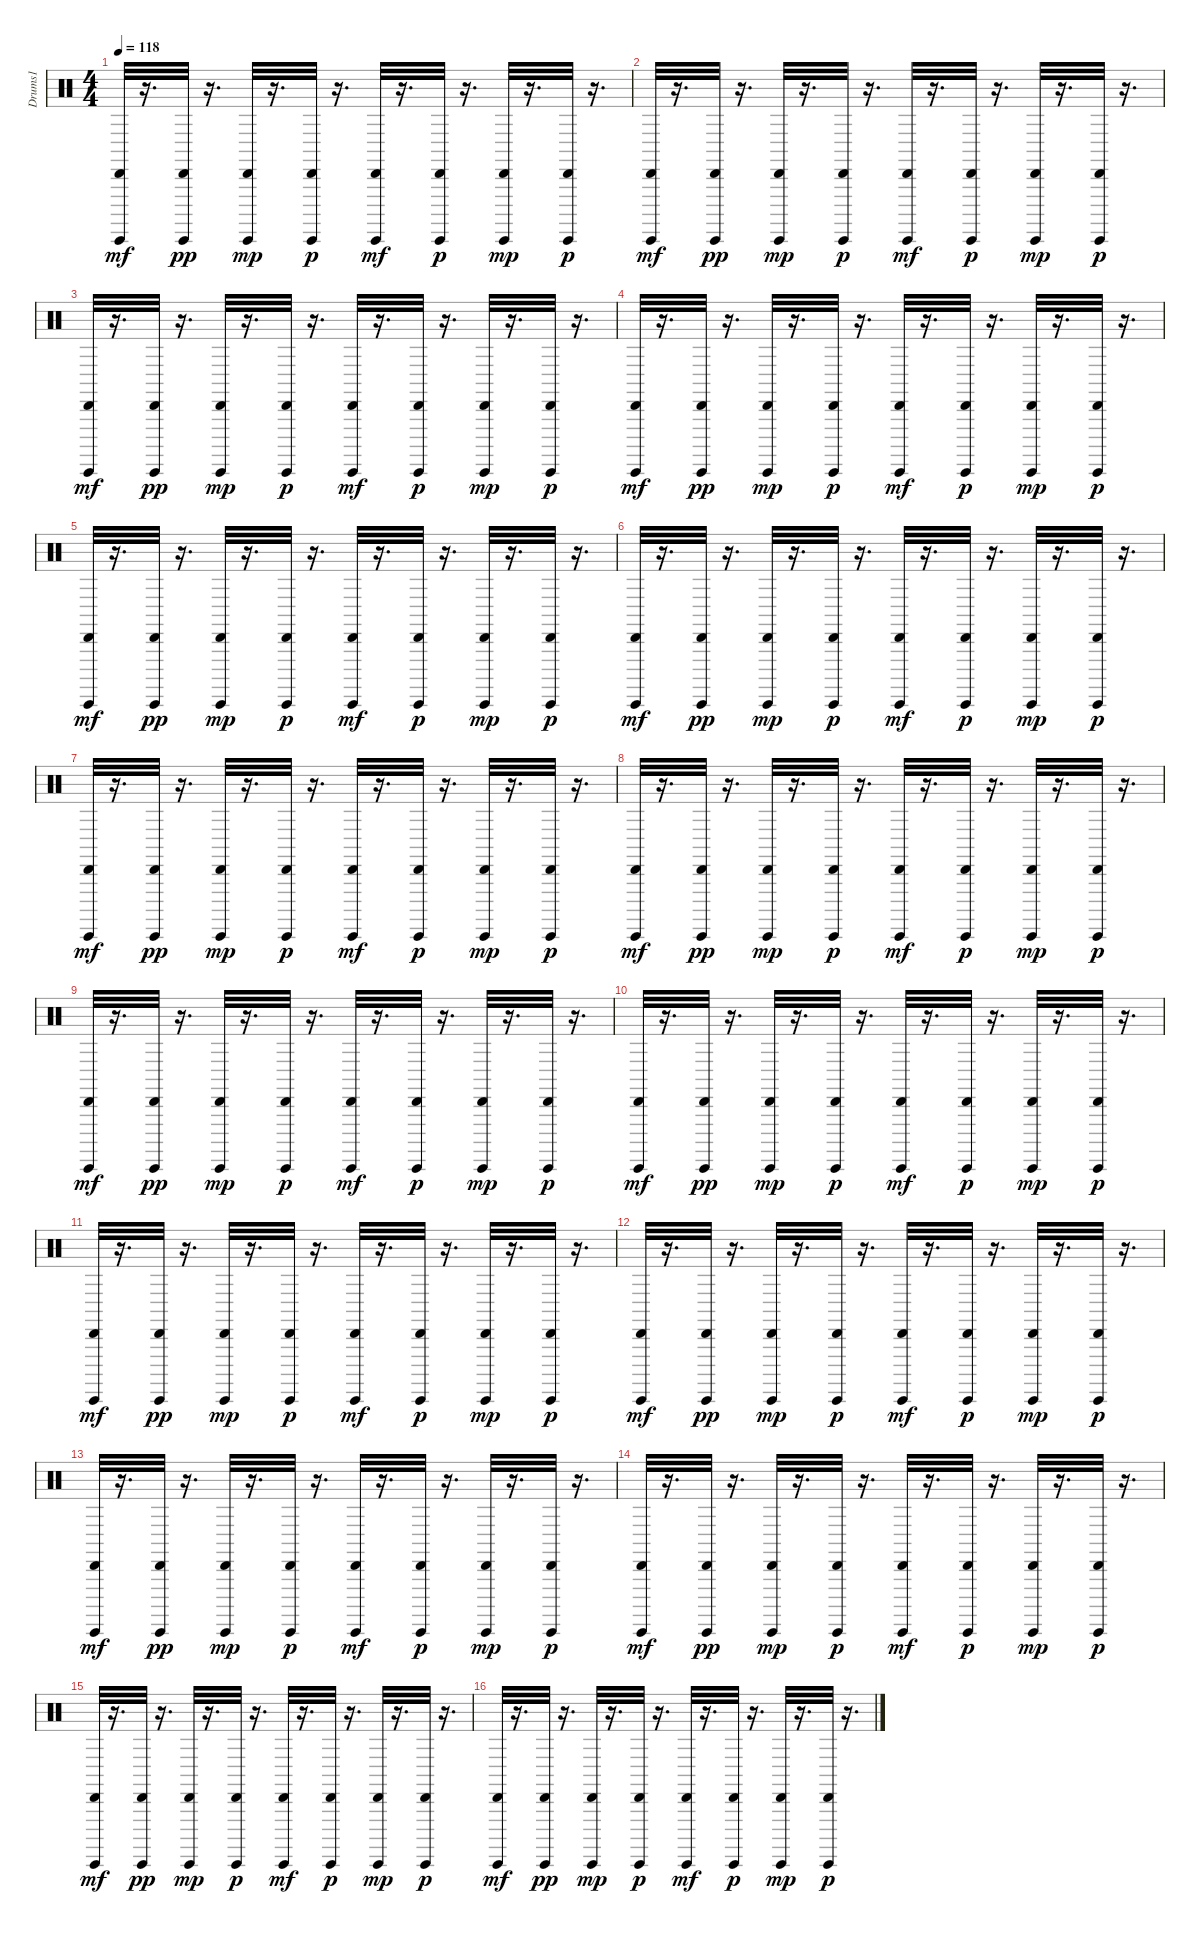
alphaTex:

\track ("Drums1" "Drums1") {instrument percussion}
\staff {score}
\articulation defaults
\ts (4 4)
\tempo 118
\clef neutral
\ks c
("Guiro (hit)" "Cabasa (hit)").32{dy mf} r.16{d} ("Guiro (hit)" "Cabasa (hit)").32{dy pp} r.16{d} ("Guiro (hit)" "Cabasa (hit)").32{dy mp} r.16{d} ("Guiro (hit)" "Cabasa (hit)").32{dy p} r.16{d} ("Guiro (hit)" "Cabasa (hit)").32{dy mf} r.16{d} ("Guiro (hit)" "Cabasa (hit)").32{dy p} r.16{d} ("Guiro (hit)" "Cabasa (hit)").32{dy mp} r.16{d} ("Guiro (hit)" "Cabasa (hit)").32{dy p} r.16{d} |
("Guiro (hit)" "Cabasa (hit)").32{dy mf} r.16{d} ("Guiro (hit)" "Cabasa (hit)").32{dy pp} r.16{d} ("Guiro (hit)" "Cabasa (hit)").32{dy mp} r.16{d} ("Guiro (hit)" "Cabasa (hit)").32{dy p} r.16{d} ("Guiro (hit)" "Cabasa (hit)").32{dy mf} r.16{d} ("Guiro (hit)" "Cabasa (hit)").32{dy p} r.16{d} ("Guiro (hit)" "Cabasa (hit)").32{dy mp} r.16{d} ("Guiro (hit)" "Cabasa (hit)").32{dy p} r.16{d} |
("Guiro (hit)" "Cabasa (hit)").32{dy mf} r.16{d} ("Guiro (hit)" "Cabasa (hit)").32{dy pp} r.16{d} ("Guiro (hit)" "Cabasa (hit)").32{dy mp} r.16{d} ("Guiro (hit)" "Cabasa (hit)").32{dy p} r.16{d} ("Guiro (hit)" "Cabasa (hit)").32{dy mf} r.16{d} ("Guiro (hit)" "Cabasa (hit)").32{dy p} r.16{d} ("Guiro (hit)" "Cabasa (hit)").32{dy mp} r.16{d} ("Guiro (hit)" "Cabasa (hit)").32{dy p} r.16{d} |
("Guiro (hit)" "Cabasa (hit)").32{dy mf} r.16{d} ("Guiro (hit)" "Cabasa (hit)").32{dy pp} r.16{d} ("Guiro (hit)" "Cabasa (hit)").32{dy mp} r.16{d} ("Guiro (hit)" "Cabasa (hit)").32{dy p} r.16{d} ("Guiro (hit)" "Cabasa (hit)").32{dy mf} r.16{d} ("Guiro (hit)" "Cabasa (hit)").32{dy p} r.16{d} ("Guiro (hit)" "Cabasa (hit)").32{dy mp} r.16{d} ("Guiro (hit)" "Cabasa (hit)").32{dy p} r.16{d} |
("Guiro (hit)" "Cabasa (hit)").32{dy mf} r.16{d} ("Guiro (hit)" "Cabasa (hit)").32{dy pp} r.16{d} ("Guiro (hit)" "Cabasa (hit)").32{dy mp} r.16{d} ("Guiro (hit)" "Cabasa (hit)").32{dy p} r.16{d} ("Guiro (hit)" "Cabasa (hit)").32{dy mf} r.16{d} ("Guiro (hit)" "Cabasa (hit)").32{dy p} r.16{d} ("Guiro (hit)" "Cabasa (hit)").32{dy mp} r.16{d} ("Guiro (hit)" "Cabasa (hit)").32{dy p} r.16{d} |
("Guiro (hit)" "Cabasa (hit)").32{dy mf} r.16{d} ("Guiro (hit)" "Cabasa (hit)").32{dy pp} r.16{d} ("Guiro (hit)" "Cabasa (hit)").32{dy mp} r.16{d} ("Guiro (hit)" "Cabasa (hit)").32{dy p} r.16{d} ("Guiro (hit)" "Cabasa (hit)").32{dy mf} r.16{d} ("Guiro (hit)" "Cabasa (hit)").32{dy p} r.16{d} ("Guiro (hit)" "Cabasa (hit)").32{dy mp} r.16{d} ("Guiro (hit)" "Cabasa (hit)").32{dy p} r.16{d} |
("Guiro (hit)" "Cabasa (hit)").32{dy mf} r.16{d} ("Guiro (hit)" "Cabasa (hit)").32{dy pp} r.16{d} ("Guiro (hit)" "Cabasa (hit)").32{dy mp} r.16{d} ("Guiro (hit)" "Cabasa (hit)").32{dy p} r.16{d} ("Guiro (hit)" "Cabasa (hit)").32{dy mf} r.16{d} ("Guiro (hit)" "Cabasa (hit)").32{dy p} r.16{d} ("Guiro (hit)" "Cabasa (hit)").32{dy mp} r.16{d} ("Guiro (hit)" "Cabasa (hit)").32{dy p} r.16{d} |
("Guiro (hit)" "Cabasa (hit)").32{dy mf} r.16{d} ("Guiro (hit)" "Cabasa (hit)").32{dy pp} r.16{d} ("Guiro (hit)" "Cabasa (hit)").32{dy mp} r.16{d} ("Guiro (hit)" "Cabasa (hit)").32{dy p} r.16{d} ("Guiro (hit)" "Cabasa (hit)").32{dy mf} r.16{d} ("Guiro (hit)" "Cabasa (hit)").32{dy p} r.16{d} ("Guiro (hit)" "Cabasa (hit)").32{dy mp} r.16{d} ("Guiro (hit)" "Cabasa (hit)").32{dy p} r.16{d} |
("Guiro (hit)" "Cabasa (hit)").32{dy mf} r.16{d} ("Guiro (hit)" "Cabasa (hit)").32{dy pp} r.16{d} ("Guiro (hit)" "Cabasa (hit)").32{dy mp} r.16{d} ("Guiro (hit)" "Cabasa (hit)").32{dy p} r.16{d} ("Guiro (hit)" "Cabasa (hit)").32{dy mf} r.16{d} ("Guiro (hit)" "Cabasa (hit)").32{dy p} r.16{d} ("Guiro (hit)" "Cabasa (hit)").32{dy mp} r.16{d} ("Guiro (hit)" "Cabasa (hit)").32{dy p} r.16{d} |
("Guiro (hit)" "Cabasa (hit)").32{dy mf} r.16{d} ("Guiro (hit)" "Cabasa (hit)").32{dy pp} r.16{d} ("Guiro (hit)" "Cabasa (hit)").32{dy mp} r.16{d} ("Guiro (hit)" "Cabasa (hit)").32{dy p} r.16{d} ("Guiro (hit)" "Cabasa (hit)").32{dy mf} r.16{d} ("Guiro (hit)" "Cabasa (hit)").32{dy p} r.16{d} ("Guiro (hit)" "Cabasa (hit)").32{dy mp} r.16{d} ("Guiro (hit)" "Cabasa (hit)").32{dy p} r.16{d} |
("Guiro (hit)" "Cabasa (hit)").32{dy mf} r.16{d} ("Guiro (hit)" "Cabasa (hit)").32{dy pp} r.16{d} ("Guiro (hit)" "Cabasa (hit)").32{dy mp} r.16{d} ("Guiro (hit)" "Cabasa (hit)").32{dy p} r.16{d} ("Guiro (hit)" "Cabasa (hit)").32{dy mf} r.16{d} ("Guiro (hit)" "Cabasa (hit)").32{dy p} r.16{d} ("Guiro (hit)" "Cabasa (hit)").32{dy mp} r.16{d} ("Guiro (hit)" "Cabasa (hit)").32{dy p} r.16{d} |
("Guiro (hit)" "Cabasa (hit)").32{dy mf} r.16{d} ("Guiro (hit)" "Cabasa (hit)").32{dy pp} r.16{d} ("Guiro (hit)" "Cabasa (hit)").32{dy mp} r.16{d} ("Guiro (hit)" "Cabasa (hit)").32{dy p} r.16{d} ("Guiro (hit)" "Cabasa (hit)").32{dy mf} r.16{d} ("Guiro (hit)" "Cabasa (hit)").32{dy p} r.16{d} ("Guiro (hit)" "Cabasa (hit)").32{dy mp} r.16{d} ("Guiro (hit)" "Cabasa (hit)").32{dy p} r.16{d} |
("Guiro (hit)" "Cabasa (hit)").32{dy mf} r.16{d} ("Guiro (hit)" "Cabasa (hit)").32{dy pp} r.16{d} ("Guiro (hit)" "Cabasa (hit)").32{dy mp} r.16{d} ("Guiro (hit)" "Cabasa (hit)").32{dy p} r.16{d} ("Guiro (hit)" "Cabasa (hit)").32{dy mf} r.16{d} ("Guiro (hit)" "Cabasa (hit)").32{dy p} r.16{d} ("Guiro (hit)" "Cabasa (hit)").32{dy mp} r.16{d} ("Guiro (hit)" "Cabasa (hit)").32{dy p} r.16{d} |
("Guiro (hit)" "Cabasa (hit)").32{dy mf} r.16{d} ("Guiro (hit)" "Cabasa (hit)").32{dy pp} r.16{d} ("Guiro (hit)" "Cabasa (hit)").32{dy mp} r.16{d} ("Guiro (hit)" "Cabasa (hit)").32{dy p} r.16{d} ("Guiro (hit)" "Cabasa (hit)").32{dy mf} r.16{d} ("Guiro (hit)" "Cabasa (hit)").32{dy p} r.16{d} ("Guiro (hit)" "Cabasa (hit)").32{dy mp} r.16{d} ("Guiro (hit)" "Cabasa (hit)").32{dy p} r.16{d} |
("Guiro (hit)" "Cabasa (hit)").32{dy mf} r.16{d} ("Guiro (hit)" "Cabasa (hit)").32{dy pp} r.16{d} ("Guiro (hit)" "Cabasa (hit)").32{dy mp} r.16{d} ("Guiro (hit)" "Cabasa (hit)").32{dy p} r.16{d} ("Guiro (hit)" "Cabasa (hit)").32{dy mf} r.16{d} ("Guiro (hit)" "Cabasa (hit)").32{dy p} r.16{d} ("Guiro (hit)" "Cabasa (hit)").32{dy mp} r.16{d} ("Guiro (hit)" "Cabasa (hit)").32{dy p} r.16{d} |
("Guiro (hit)" "Cabasa (hit)").32{dy mf} r.16{d} ("Guiro (hit)" "Cabasa (hit)").32{dy pp} r.16{d} ("Guiro (hit)" "Cabasa (hit)").32{dy mp} r.16{d} ("Guiro (hit)" "Cabasa (hit)").32{dy p} r.16{d} ("Guiro (hit)" "Cabasa (hit)").32{dy mf} r.16{d} ("Guiro (hit)" "Cabasa (hit)").32{dy p} r.16{d} ("Guiro (hit)" "Cabasa (hit)").32{dy mp} r.16{d} ("Guiro (hit)" "Cabasa (hit)").32{dy p} r.16{d}
